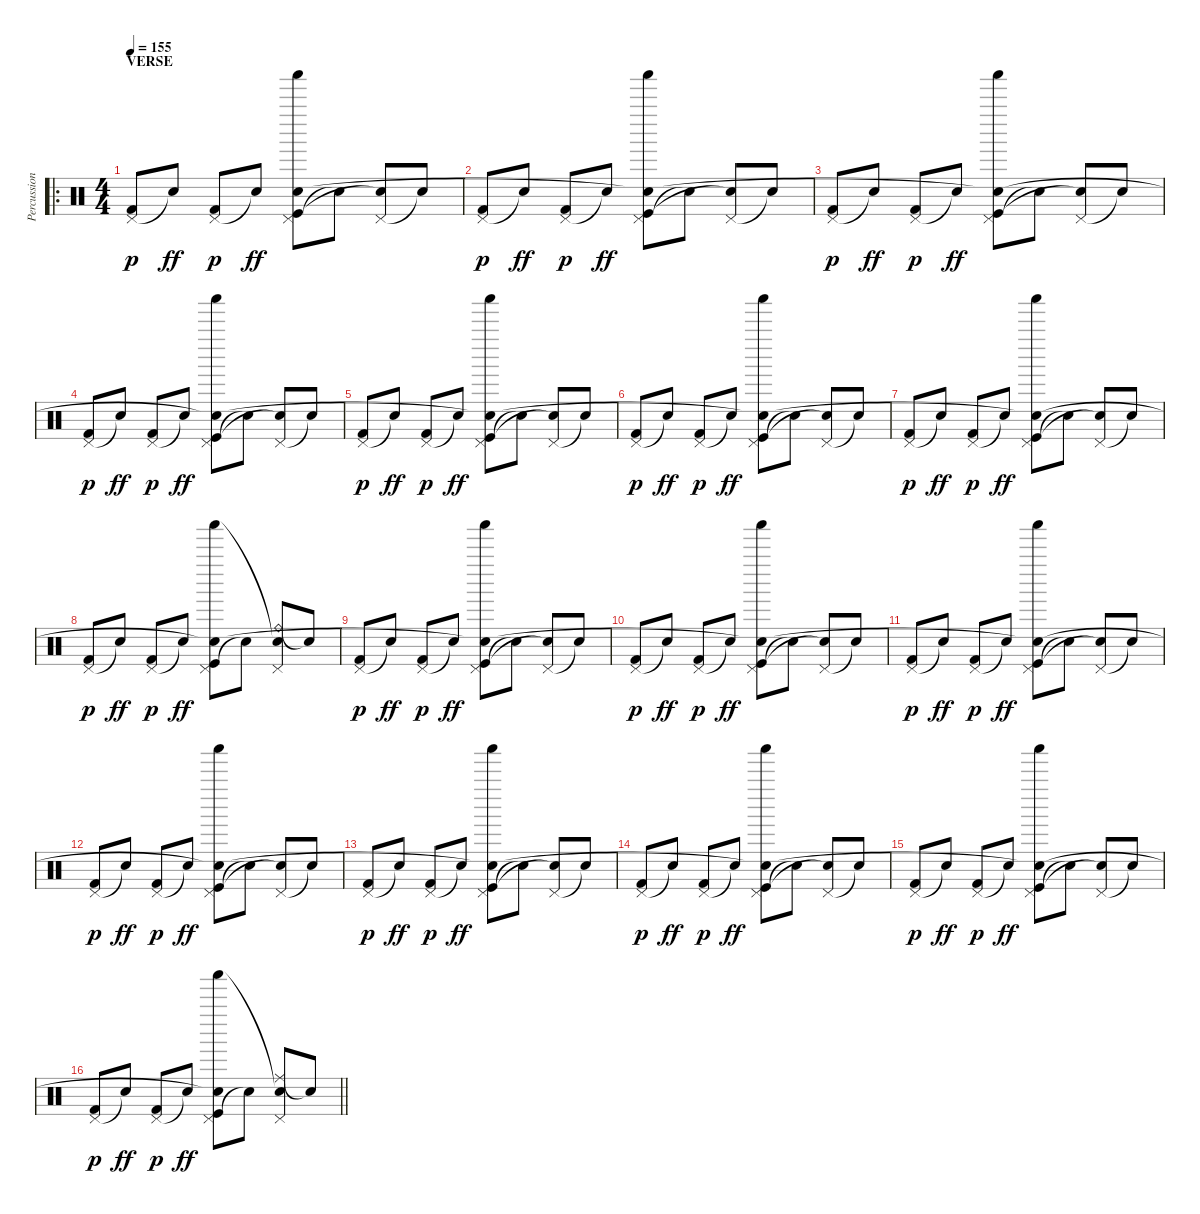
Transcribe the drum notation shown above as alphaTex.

\track ("Percussion" "Percussion") {instrument percussion}
\staff {score}
\articulation defaults
\ro
\ts (4 4)
\section ("" "VERSE")
\tempo 155
\clef neutral
\ks c
("Pedal Hi-Hat (hit)" "Kick (hit) 2").8{dy p} "Snare (hit)"{t}.8{dy ff} ("Pedal Hi-Hat (hit)" "Kick (hit) 2").8{dy p} "Snare (hit)"{t}.8{dy ff} ("Pedal Hi-Hat (hit)" "Kick (hit)" "Shaker (hit)" "Snare (hit)").8 "Snare (hit)"{t}.8 ("Pedal Hi-Hat (hit)" "Snare (hit)"{t}).8 "Snare (hit)"{t}.8 |
("Pedal Hi-Hat (hit)" "Kick (hit) 2").8{dy p} "Snare (hit)"{t}.8{dy ff} ("Pedal Hi-Hat (hit)" "Kick (hit) 2").8{dy p} "Snare (hit)"{t}.8{dy ff} ("Pedal Hi-Hat (hit)" "Kick (hit)" "Shaker (hit)" "Snare (hit)"{t}).8 "Snare (hit)"{t}.8 ("Pedal Hi-Hat (hit)" "Snare (hit)"{t}).8 "Snare (hit)"{t}.8 |
("Pedal Hi-Hat (hit)" "Kick (hit) 2").8{dy p} "Snare (hit)"{t}.8{dy ff} ("Pedal Hi-Hat (hit)" "Kick (hit) 2").8{dy p} "Snare (hit)"{t}.8{dy ff} ("Pedal Hi-Hat (hit)" "Kick (hit)" "Shaker (hit)" "Snare (hit)"{t}).8 "Snare (hit)"{t}.8 ("Pedal Hi-Hat (hit)" "Snare (hit)"{t}).8 "Snare (hit)"{t}.8 |
("Pedal Hi-Hat (hit)" "Kick (hit) 2").8{dy p} "Snare (hit)"{t}.8{dy ff} ("Pedal Hi-Hat (hit)" "Kick (hit) 2").8{dy p} "Snare (hit)"{t}.8{dy ff} ("Pedal Hi-Hat (hit)" "Kick (hit)" "Shaker (hit)" "Snare (hit)"{t}).8 "Snare (hit)"{t}.8 ("Pedal Hi-Hat (hit)" "Snare (hit)"{t}).8 "Snare (hit)"{t}.8 |
("Pedal Hi-Hat (hit)" "Kick (hit) 2").8{dy p} "Snare (hit)"{t}.8{dy ff} ("Pedal Hi-Hat (hit)" "Kick (hit) 2").8{dy p} "Snare (hit)"{t}.8{dy ff} ("Pedal Hi-Hat (hit)" "Kick (hit)" "Shaker (hit)" "Snare (hit)"{t}).8 "Snare (hit)"{t}.8 ("Pedal Hi-Hat (hit)" "Snare (hit)"{t}).8 "Snare (hit)"{t}.8 |
("Pedal Hi-Hat (hit)" "Kick (hit) 2").8{dy p} "Snare (hit)"{t}.8{dy ff} ("Pedal Hi-Hat (hit)" "Kick (hit) 2").8{dy p} "Snare (hit)"{t}.8{dy ff} ("Pedal Hi-Hat (hit)" "Kick (hit)" "Shaker (hit)" "Snare (hit)"{t}).8 "Snare (hit)"{t}.8 ("Pedal Hi-Hat (hit)" "Snare (hit)"{t}).8 "Snare (hit)"{t}.8 |
("Pedal Hi-Hat (hit)" "Kick (hit) 2").8{dy p} "Snare (hit)"{t}.8{dy ff} ("Pedal Hi-Hat (hit)" "Kick (hit) 2").8{dy p} "Snare (hit)"{t}.8{dy ff} ("Pedal Hi-Hat (hit)" "Kick (hit)" "Shaker (hit)" "Snare (hit)"{t}).8 "Snare (hit)"{t}.8 ("Pedal Hi-Hat (hit)" "Snare (hit)"{t}).8 "Snare (hit)"{t}.8 |
("Pedal Hi-Hat (hit)" "Kick (hit) 2").8{dy p} "Snare (hit)"{t}.8{dy ff} ("Pedal Hi-Hat (hit)" "Kick (hit) 2").8{dy p} "Snare (hit)"{t}.8{dy ff} ("Pedal Hi-Hat (hit)" "Kick (hit)" "Shaker (hit)" "Snare (hit)"{t}).8 "Snare (hit)"{t}.8 ("Ride (bell)" "Pedal Hi-Hat (hit)" "Snare (hit)"{t}).8 "Snare (hit)"{t}.8 |
("Pedal Hi-Hat (hit)" "Kick (hit) 2").8{dy p} "Snare (hit)"{t}.8{dy ff} ("Pedal Hi-Hat (hit)" "Kick (hit) 2").8{dy p} "Snare (hit)"{t}.8{dy ff} ("Pedal Hi-Hat (hit)" "Kick (hit)" "Shaker (hit)" "Snare (hit)"{t}).8 "Snare (hit)"{t}.8 ("Pedal Hi-Hat (hit)" "Snare (hit)"{t}).8 "Snare (hit)"{t}.8 |
("Pedal Hi-Hat (hit)" "Kick (hit) 2").8{dy p} "Snare (hit)"{t}.8{dy ff} ("Pedal Hi-Hat (hit)" "Kick (hit) 2").8{dy p} "Snare (hit)"{t}.8{dy ff} ("Pedal Hi-Hat (hit)" "Kick (hit)" "Shaker (hit)" "Snare (hit)"{t}).8 "Snare (hit)"{t}.8 ("Pedal Hi-Hat (hit)" "Snare (hit)"{t}).8 "Snare (hit)"{t}.8 |
("Pedal Hi-Hat (hit)" "Kick (hit) 2").8{dy p} "Snare (hit)"{t}.8{dy ff} ("Pedal Hi-Hat (hit)" "Kick (hit) 2").8{dy p} "Snare (hit)"{t}.8{dy ff} ("Pedal Hi-Hat (hit)" "Kick (hit)" "Shaker (hit)" "Snare (hit)"{t}).8 "Snare (hit)"{t}.8 ("Pedal Hi-Hat (hit)" "Snare (hit)"{t}).8 "Snare (hit)"{t}.8 |
("Pedal Hi-Hat (hit)" "Kick (hit) 2").8{dy p} "Snare (hit)"{t}.8{dy ff} ("Pedal Hi-Hat (hit)" "Kick (hit) 2").8{dy p} "Snare (hit)"{t}.8{dy ff} ("Pedal Hi-Hat (hit)" "Kick (hit)" "Shaker (hit)" "Snare (hit)"{t}).8 "Snare (hit)"{t}.8 ("Pedal Hi-Hat (hit)" "Snare (hit)"{t}).8 "Snare (hit)"{t}.8 |
("Pedal Hi-Hat (hit)" "Kick (hit) 2").8{dy p} "Snare (hit)"{t}.8{dy ff} ("Pedal Hi-Hat (hit)" "Kick (hit) 2").8{dy p} "Snare (hit)"{t}.8{dy ff} ("Pedal Hi-Hat (hit)" "Kick (hit)" "Shaker (hit)" "Snare (hit)"{t}).8 "Snare (hit)"{t}.8 ("Pedal Hi-Hat (hit)" "Snare (hit)"{t}).8 "Snare (hit)"{t}.8 |
("Pedal Hi-Hat (hit)" "Kick (hit) 2").8{dy p} "Snare (hit)"{t}.8{dy ff} ("Pedal Hi-Hat (hit)" "Kick (hit) 2").8{dy p} "Snare (hit)"{t}.8{dy ff} ("Pedal Hi-Hat (hit)" "Kick (hit)" "Shaker (hit)" "Snare (hit)"{t}).8 "Snare (hit)"{t}.8 ("Pedal Hi-Hat (hit)" "Snare (hit)"{t}).8 "Snare (hit)"{t}.8 |
("Pedal Hi-Hat (hit)" "Kick (hit) 2").8{dy p} "Snare (hit)"{t}.8{dy ff} ("Pedal Hi-Hat (hit)" "Kick (hit) 2").8{dy p} "Snare (hit)"{t}.8{dy ff} ("Pedal Hi-Hat (hit)" "Kick (hit)" "Shaker (hit)" "Snare (hit)"{t}).8 "Snare (hit)"{t}.8 ("Pedal Hi-Hat (hit)" "Snare (hit)"{t}).8 "Snare (hit)"{t}.8 |
\barLineRight lightlight
("Pedal Hi-Hat (hit)" "Kick (hit) 2").8{dy p} "Snare (hit)"{t}.8{dy ff} ("Pedal Hi-Hat (hit)" "Kick (hit) 2").8{dy p} "Snare (hit)"{t}.8{dy ff} ("Pedal Hi-Hat (hit)" "Kick (hit)" "Shaker (hit)" "Snare (hit)"{t}).8 "Snare (hit)"{t}.8 ("Ride (middle)" "Pedal Hi-Hat (hit)" "Snare (hit)"{t}).8 "Snare (hit)"{t}.8
